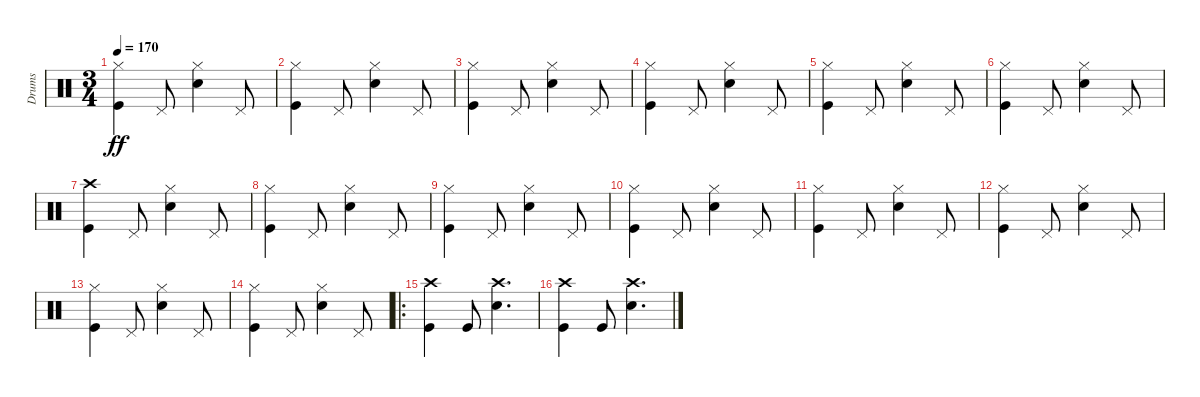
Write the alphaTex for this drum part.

\track ("Drums" "Drums") {instrument percussion}
\staff {score}
\articulation defaults
\ts (3 4)
\tempo 170
\clef neutral
\ks c
("Hi-Hat (closed)" "Kick (hit)").4{dy ff} "Pedal Hi-Hat (hit)".8 ("Hi-Hat (closed)" "Snare (hit) 2").4 "Pedal Hi-Hat (hit)".8 |
("Hi-Hat (closed)" "Kick (hit)").4 "Pedal Hi-Hat (hit)".8 ("Hi-Hat (closed)" "Snare (hit) 2").4 "Pedal Hi-Hat (hit)".8 |
("Hi-Hat (closed)" "Kick (hit)").4 "Pedal Hi-Hat (hit)".8 ("Hi-Hat (closed)" "Snare (hit) 2").4 "Pedal Hi-Hat (hit)".8 |
("Hi-Hat (closed)" "Kick (hit)").4 "Pedal Hi-Hat (hit)".8 ("Hi-Hat (closed)" "Snare (hit) 2").4 "Pedal Hi-Hat (hit)".8 |
("Hi-Hat (closed)" "Kick (hit)").4 "Pedal Hi-Hat (hit)".8 ("Hi-Hat (closed)" "Snare (hit) 2").4 "Pedal Hi-Hat (hit)".8 |
("Hi-Hat (closed)" "Kick (hit)").4 "Pedal Hi-Hat (hit)".8 ("Hi-Hat (closed)" "Snare (hit) 2").4 "Pedal Hi-Hat (hit)".8 |
("Crash high (hit)" "Kick (hit)").4 "Pedal Hi-Hat (hit)".8 ("Hi-Hat (closed)" "Snare (hit) 2").4 "Pedal Hi-Hat (hit)".8 |
("Hi-Hat (closed)" "Kick (hit)").4 "Pedal Hi-Hat (hit)".8 ("Hi-Hat (closed)" "Snare (hit) 2").4 "Pedal Hi-Hat (hit)".8 |
("Hi-Hat (closed)" "Kick (hit)").4 "Pedal Hi-Hat (hit)".8 ("Hi-Hat (closed)" "Snare (hit) 2").4 "Pedal Hi-Hat (hit)".8 |
("Hi-Hat (closed)" "Kick (hit)").4 "Pedal Hi-Hat (hit)".8 ("Hi-Hat (closed)" "Snare (hit) 2").4 "Pedal Hi-Hat (hit)".8 |
("Hi-Hat (closed)" "Kick (hit)").4 "Pedal Hi-Hat (hit)".8 ("Hi-Hat (closed)" "Snare (hit) 2").4 "Pedal Hi-Hat (hit)".8 |
("Hi-Hat (closed)" "Kick (hit)").4 "Pedal Hi-Hat (hit)".8 ("Hi-Hat (closed)" "Snare (hit) 2").4 "Pedal Hi-Hat (hit)".8 |
("Hi-Hat (closed)" "Kick (hit)").4 "Pedal Hi-Hat (hit)".8 ("Hi-Hat (closed)" "Snare (hit) 2").4 "Pedal Hi-Hat (hit)".8 |
("Hi-Hat (closed)" "Kick (hit)").4 "Pedal Hi-Hat (hit)".8 ("Hi-Hat (closed)" "Snare (hit) 2").4 "Pedal Hi-Hat (hit)".8 |
\ro
("Crash high (hit)" "Kick (hit)").4 "Kick (hit)".8 ("Crash high (hit)" "Snare (hit) 2").4{d} |
("Crash high (hit)" "Kick (hit)").4 "Kick (hit)".8 ("Crash high (hit)" "Snare (hit) 2").4{d}
